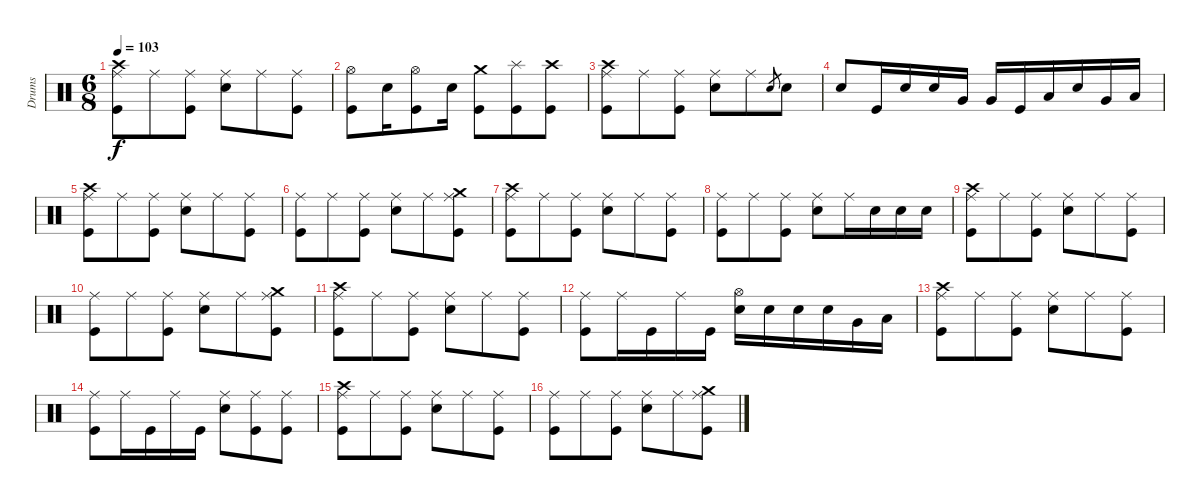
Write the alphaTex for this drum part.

\track ("Drums" "Drums") {instrument percussion}
\staff {score}
\articulation defaults
\ts (6 8)
\tempo 103
\clef neutral
\ks c
("Crash high (hit)" "Ride (middle)" "Kick (hit)").8{dy f} "Ride (middle)".8 ("Ride (middle)" "Kick (hit)").8 ("Ride (middle)" "Electric Snare (hit)").8 "Ride (middle)".8 ("Ride (middle)" "Kick (hit)").8 |
("Hi-Hat (open)" "Kick (hit)").8 "Electric Snare (hit)".16 ("Hi-Hat (open)" "Kick (hit)").8 "Electric Snare (hit)".16 ("Crash medium (hit)" "Kick (hit)").8 ("Splash (hit)" "Kick (hit)").8 ("Crash high (hit)" "Kick (hit)").8 |
("Crash high (hit)" "Ride (middle)" "Kick (hit)").8 "Ride (middle)".8 ("Ride (middle)" "Kick (hit)").8 ("Ride (middle)" "Electric Snare (hit)").8 "Ride (middle)".8 "Electric Snare (hit)".8{gr} "Electric Snare (hit)".8 |
"Electric Snare (hit)".8 "Kick (hit)".16 "Electric Snare (hit)".16 "Electric Snare (hit)".16 "Very Low Tom (hit)".16 "Very Low Tom (hit)".16 "Kick (hit)".16 "Low Tom (hit)".16 "Electric Snare (hit)".16 "Very Low Tom (hit)".16 "Low Floor Tom (hit)".16 |
("Crash high (hit)" "Ride (middle)" "Kick (hit)").8 "Ride (middle)".8 ("Ride (middle)" "Kick (hit)").8 ("Ride (middle)" "Electric Snare (hit)").8 "Ride (middle)".8 ("Ride (middle)" "Kick (hit)").8 |
("Ride (middle)" "Kick (hit)").8 "Ride (middle)".8 ("Ride (middle)" "Kick (hit)").8 ("Ride (middle)" "Electric Snare (hit)").8 "Ride (middle)".8 ("Crash medium (hit)" "Ride (middle)" "Kick (hit)").8 |
("Crash high (hit)" "Ride (middle)" "Kick (hit)").8 "Ride (middle)".8 ("Ride (middle)" "Kick (hit)").8 ("Ride (middle)" "Electric Snare (hit)").8 "Ride (middle)".8 ("Ride (middle)" "Kick (hit)").8 |
("Ride (middle)" "Kick (hit)").8 "Ride (middle)".8 ("Ride (middle)" "Kick (hit)").8 ("Ride (middle)" "Electric Snare (hit)").8 "Ride (middle)".16 "Electric Snare (hit)".16 "Electric Snare (hit)".16 "Electric Snare (hit)".16 |
("Crash high (hit)" "Ride (middle)" "Kick (hit)").8 "Ride (middle)".8 ("Ride (middle)" "Kick (hit)").8 ("Ride (middle)" "Electric Snare (hit)").8 "Ride (middle)".8 ("Ride (middle)" "Kick (hit)").8 |
("Ride (middle)" "Kick (hit)").8 "Ride (middle)".8 ("Ride (middle)" "Kick (hit)").8 ("Ride (middle)" "Electric Snare (hit)").8 "Ride (middle)".8 ("Crash medium (hit)" "Ride (middle)" "Kick (hit)").8 |
("Crash high (hit)" "Ride (middle)" "Kick (hit)").8 "Ride (middle)".8 ("Ride (middle)" "Kick (hit)").8 ("Ride (middle)" "Electric Snare (hit)").8 "Ride (middle)".8 ("Ride (middle)" "Kick (hit)").8 |
("Ride (middle)" "Kick (hit)").8 "Ride (middle)".16 "Kick (hit)".16 "Ride (middle)".16 "Kick (hit)".16 ("Hi-Hat (open)" "Electric Snare (hit)").16 "Electric Snare (hit)".16 "Electric Snare (hit)".16 "Electric Snare (hit)".16 "Very Low Tom (hit)".16 "Low Floor Tom (hit)".16 |
("Crash high (hit)" "Ride (middle)" "Kick (hit)").8 "Ride (middle)".8 ("Ride (middle)" "Kick (hit)").8 ("Ride (middle)" "Electric Snare (hit)").8 "Ride (middle)".8 ("Ride (middle)" "Kick (hit)").8 |
("Ride (middle)" "Kick (hit)").8 "Ride (middle)".16 "Kick (hit)".16 "Ride (middle)".16 "Kick (hit)".16 ("Ride (middle)" "Electric Snare (hit)").8 ("Ride (middle)" "Kick (hit)").8 ("Ride (middle)" "Kick (hit)").8 |
("Crash high (hit)" "Ride (middle)" "Kick (hit)").8 "Ride (middle)".8 ("Ride (middle)" "Kick (hit)").8 ("Ride (middle)" "Electric Snare (hit)").8 "Ride (middle)".8 ("Ride (middle)" "Kick (hit)").8 |
("Ride (middle)" "Kick (hit)").8 "Ride (middle)".8 ("Ride (middle)" "Kick (hit)").8 ("Ride (middle)" "Electric Snare (hit)").8 "Ride (middle)".8 ("Crash medium (hit)" "Ride (middle)" "Kick (hit)").8
